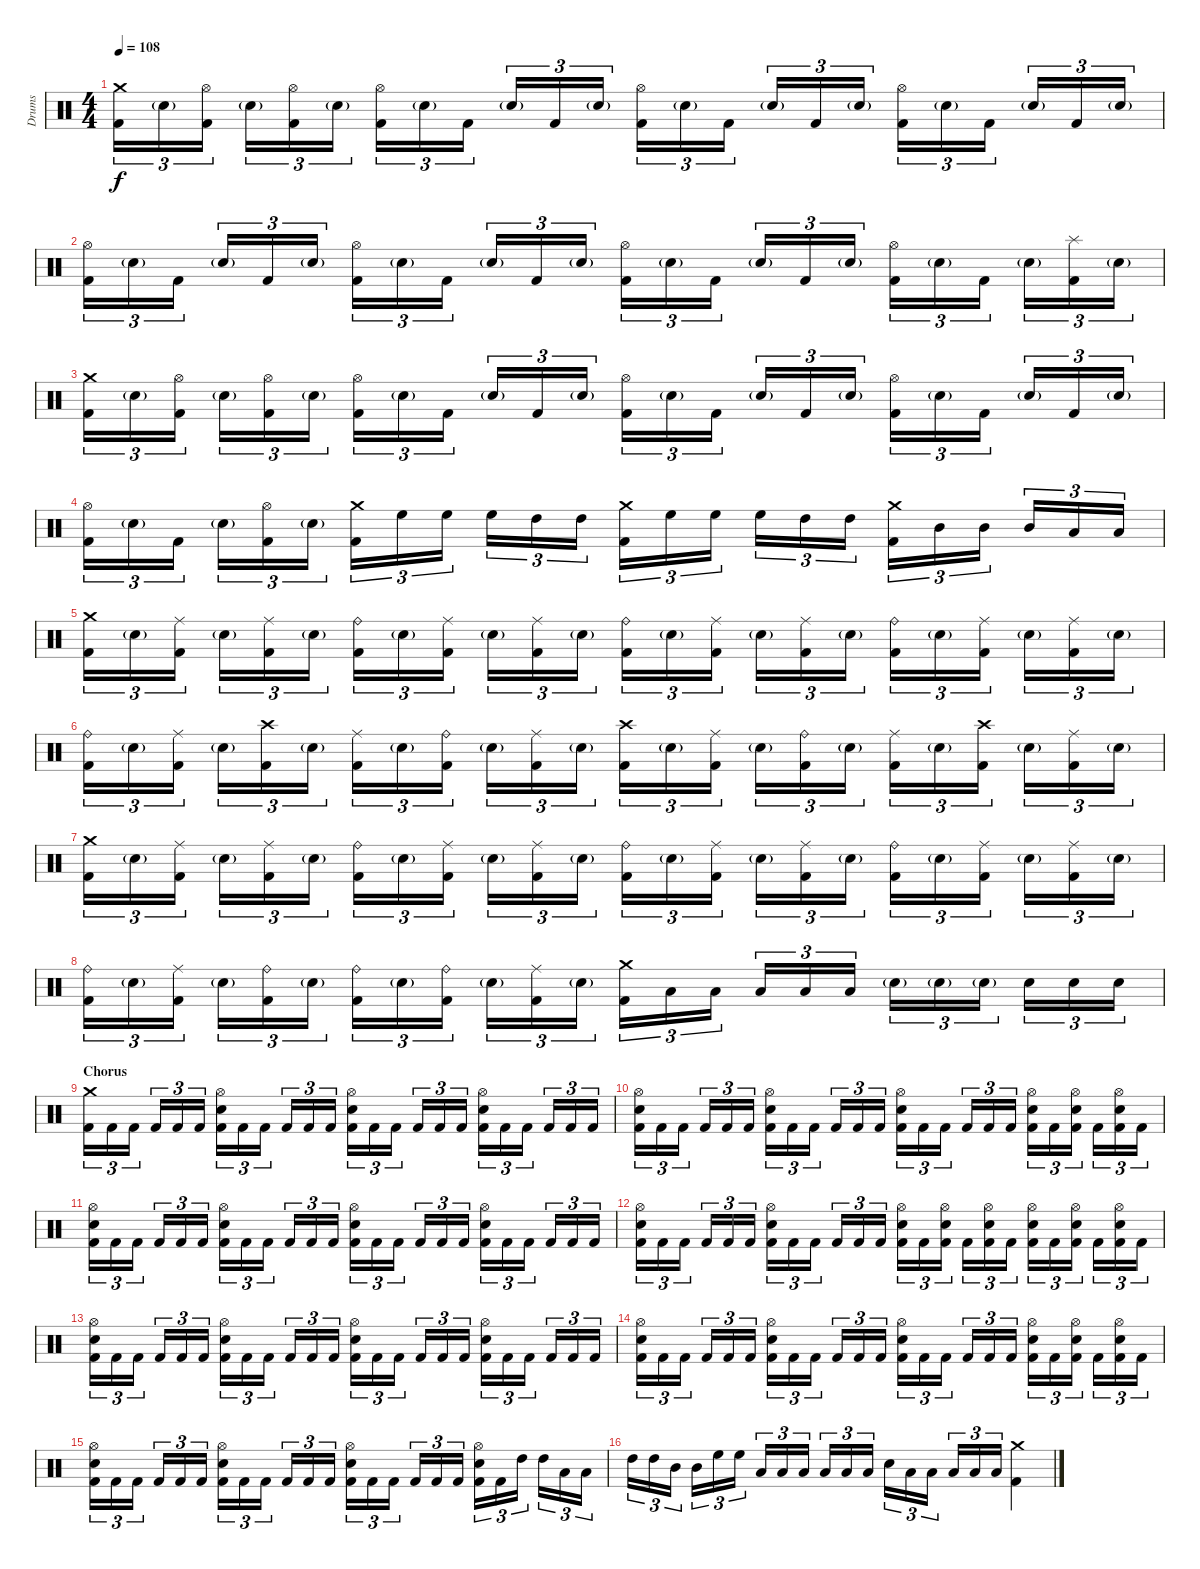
\track ("Drums" "Drums") {instrument percussion}
\staff {score}
\articulation defaults
\ts (4 4)
\tempo 108
\clef neutral
\ks c
("Crash medium (hit)" "Kick (hit) 2").16{tu (3 2) dy f} "Snare (hit) 2"{g}.16{tu (3 2)} ("Hi-Hat (open)" "Kick (hit) 2").16{tu (3 2)} "Snare (hit) 2"{g}.16{tu (3 2)} ("Hi-Hat (open)" "Kick (hit) 2").16{tu (3 2)} "Snare (hit) 2"{g}.16{tu (3 2)} ("Hi-Hat (open)" "Kick (hit) 2").16{tu (3 2)} "Snare (hit) 2"{g}.16{tu (3 2)} "Kick (hit) 2".16{tu (3 2)} "Snare (hit) 2"{g}.16{tu (3 2)} "Kick (hit) 2".16{tu (3 2)} "Snare (hit) 2"{g}.16{tu (3 2)} ("Hi-Hat (open)" "Kick (hit) 2").16{tu (3 2)} "Snare (hit) 2"{g}.16{tu (3 2)} "Kick (hit) 2".16{tu (3 2)} "Snare (hit) 2"{g}.16{tu (3 2)} "Kick (hit) 2".16{tu (3 2)} "Snare (hit) 2"{g}.16{tu (3 2)} ("Hi-Hat (open)" "Kick (hit) 2").16{tu (3 2)} "Snare (hit) 2"{g}.16{tu (3 2)} "Kick (hit) 2".16{tu (3 2)} "Snare (hit) 2"{g}.16{tu (3 2)} "Kick (hit) 2".16{tu (3 2)} "Snare (hit) 2"{g}.16{tu (3 2)} |
("Hi-Hat (open)" "Kick (hit) 2").16{tu (3 2)} "Snare (hit) 2"{g}.16{tu (3 2)} "Kick (hit) 2".16{tu (3 2)} "Snare (hit) 2"{g}.16{tu (3 2)} "Kick (hit) 2".16{tu (3 2)} "Snare (hit) 2"{g}.16{tu (3 2)} ("Hi-Hat (open)" "Kick (hit) 2").16{tu (3 2)} "Snare (hit) 2"{g}.16{tu (3 2)} "Kick (hit) 2".16{tu (3 2)} "Snare (hit) 2"{g}.16{tu (3 2)} "Kick (hit) 2".16{tu (3 2)} "Snare (hit) 2"{g}.16{tu (3 2)} ("Hi-Hat (open)" "Kick (hit) 2").16{tu (3 2)} "Snare (hit) 2"{g}.16{tu (3 2)} "Kick (hit) 2".16{tu (3 2)} "Snare (hit) 2"{g}.16{tu (3 2)} "Kick (hit) 2".16{tu (3 2)} "Snare (hit) 2"{g}.16{tu (3 2)} ("Hi-Hat (open)" "Kick (hit) 2").16{tu (3 2)} "Snare (hit) 2"{g}.16{tu (3 2)} "Kick (hit) 2".16{tu (3 2)} "Snare (hit) 2"{g}.16{tu (3 2)} ("Splash (hit)" "Kick (hit) 2").16{tu (3 2)} "Snare (hit) 2"{g}.16{tu (3 2)} |
("Crash medium (hit)" "Kick (hit) 2").16{tu (3 2)} "Snare (hit) 2"{g}.16{tu (3 2)} ("Hi-Hat (open)" "Kick (hit) 2").16{tu (3 2)} "Snare (hit) 2"{g}.16{tu (3 2)} ("Hi-Hat (open)" "Kick (hit) 2").16{tu (3 2)} "Snare (hit) 2"{g}.16{tu (3 2)} ("Hi-Hat (open)" "Kick (hit) 2").16{tu (3 2)} "Snare (hit) 2"{g}.16{tu (3 2)} "Kick (hit) 2".16{tu (3 2)} "Snare (hit) 2"{g}.16{tu (3 2)} "Kick (hit) 2".16{tu (3 2)} "Snare (hit) 2"{g}.16{tu (3 2)} ("Hi-Hat (open)" "Kick (hit) 2").16{tu (3 2)} "Snare (hit) 2"{g}.16{tu (3 2)} "Kick (hit) 2".16{tu (3 2)} "Snare (hit) 2"{g}.16{tu (3 2)} "Kick (hit) 2".16{tu (3 2)} "Snare (hit) 2"{g}.16{tu (3 2)} ("Hi-Hat (open)" "Kick (hit) 2").16{tu (3 2)} "Snare (hit) 2"{g}.16{tu (3 2)} "Kick (hit) 2".16{tu (3 2)} "Snare (hit) 2"{g}.16{tu (3 2)} "Kick (hit) 2".16{tu (3 2)} "Snare (hit) 2"{g}.16{tu (3 2)} |
("Hi-Hat (open)" "Kick (hit) 2").16{tu (3 2)} "Snare (hit) 2"{g}.16{tu (3 2)} "Kick (hit) 2".16{tu (3 2)} "Snare (hit) 2"{g}.16{tu (3 2)} ("Hi-Hat (open)" "Kick (hit) 2").16{tu (3 2)} "Snare (hit) 2"{g}.16{tu (3 2)} ("Crash medium (hit)" "Kick (hit) 2").16{tu (3 2)} "High Floor Tom (hit)".16{tu (3 2)} "High Floor Tom (hit)".16{tu (3 2)} "High Floor Tom (hit)".16{tu (3 2)} "High Tom (hit)".16{tu (3 2)} "High Tom (hit)".16{tu (3 2)} ("Crash medium (hit)" "Kick (hit) 2").16{tu (3 2)} "High Floor Tom (hit)".16{tu (3 2)} "High Floor Tom (hit)".16{tu (3 2)} "High Floor Tom (hit)".16{tu (3 2)} "High Tom (hit)".16{tu (3 2)} "High Tom (hit)".16{tu (3 2)} ("Crash medium (hit)" "Kick (hit) 2").16{tu (3 2)} "Mid Tom (hit)".16{tu (3 2)} "Mid Tom (hit)".16{tu (3 2)} "Mid Tom (hit)".16{tu (3 2)} "Low Tom (hit)".16{tu (3 2)} "Low Tom (hit)".16{tu (3 2)} |
("Crash medium (hit)" "Kick (hit) 2").16{tu (3 2)} "Snare (hit) 2"{g}.16{tu (3 2)} ("Ride (middle)" "Kick (hit) 2").16{tu (3 2)} "Snare (hit) 2"{g}.16{tu (3 2)} ("Ride (middle)" "Kick (hit) 2").16{tu (3 2)} "Snare (hit) 2"{g}.16{tu (3 2)} ("Ride (bell)" "Kick (hit) 2").16{tu (3 2)} "Snare (hit) 2"{g}.16{tu (3 2)} ("Ride (middle)" "Kick (hit) 2").16{tu (3 2)} "Snare (hit) 2"{g}.16{tu (3 2)} ("Ride (middle)" "Kick (hit) 2").16{tu (3 2)} "Snare (hit) 2"{g}.16{tu (3 2)} ("Ride (bell)" "Kick (hit) 2").16{tu (3 2)} "Snare (hit) 2"{g}.16{tu (3 2)} ("Ride (middle)" "Kick (hit) 2").16{tu (3 2)} "Snare (hit) 2"{g}.16{tu (3 2)} ("Ride (middle)" "Kick (hit) 2").16{tu (3 2)} "Snare (hit) 2"{g}.16{tu (3 2)} ("Ride (bell)" "Kick (hit) 2").16{tu (3 2)} "Snare (hit) 2"{g}.16{tu (3 2)} ("Ride (middle)" "Kick (hit) 2").16{tu (3 2)} "Snare (hit) 2"{g}.16{tu (3 2)} ("Ride (middle)" "Kick (hit) 2").16{tu (3 2)} "Snare (hit) 2"{g}.16{tu (3 2)} |
("Ride (bell)" "Kick (hit) 2").16{tu (3 2)} "Snare (hit) 2"{g}.16{tu (3 2)} ("Ride (middle)" "Kick (hit) 2").16{tu (3 2)} "Snare (hit) 2"{g}.16{tu (3 2)} ("Crash high (hit)" "Kick (hit) 2").16{tu (3 2)} "Snare (hit) 2"{g}.16{tu (3 2)} ("Ride (middle)" "Kick (hit) 2").16{tu (3 2)} "Snare (hit) 2"{g}.16{tu (3 2)} ("Ride (bell)" "Kick (hit) 2").16{tu (3 2)} "Snare (hit) 2"{g}.16{tu (3 2)} ("Ride (middle)" "Kick (hit) 2").16{tu (3 2)} "Snare (hit) 2"{g}.16{tu (3 2)} ("Crash high (hit)" "Kick (hit) 2").16{tu (3 2)} "Snare (hit) 2"{g}.16{tu (3 2)} ("Ride (middle)" "Kick (hit) 2").16{tu (3 2)} "Snare (hit) 2"{g}.16{tu (3 2)} ("Ride (bell)" "Kick (hit) 2").16{tu (3 2)} "Snare (hit) 2"{g}.16{tu (3 2)} ("Ride (middle)" "Kick (hit) 2").16{tu (3 2)} "Snare (hit) 2"{g}.16{tu (3 2)} ("Crash high (hit)" "Kick (hit) 2").16{tu (3 2)} "Snare (hit) 2"{g}.16{tu (3 2)} ("Ride (middle)" "Kick (hit) 2").16{tu (3 2)} "Snare (hit) 2"{g}.16{tu (3 2)} |
("Crash medium (hit)" "Kick (hit) 2").16{tu (3 2)} "Snare (hit) 2"{g}.16{tu (3 2)} ("Ride (middle)" "Kick (hit) 2").16{tu (3 2)} "Snare (hit) 2"{g}.16{tu (3 2)} ("Ride (middle)" "Kick (hit) 2").16{tu (3 2)} "Snare (hit) 2"{g}.16{tu (3 2)} ("Ride (bell)" "Kick (hit) 2").16{tu (3 2)} "Snare (hit) 2"{g}.16{tu (3 2)} ("Ride (middle)" "Kick (hit) 2").16{tu (3 2)} "Snare (hit) 2"{g}.16{tu (3 2)} ("Ride (middle)" "Kick (hit) 2").16{tu (3 2)} "Snare (hit) 2"{g}.16{tu (3 2)} ("Ride (bell)" "Kick (hit) 2").16{tu (3 2)} "Snare (hit) 2"{g}.16{tu (3 2)} ("Ride (middle)" "Kick (hit) 2").16{tu (3 2)} "Snare (hit) 2"{g}.16{tu (3 2)} ("Ride (middle)" "Kick (hit) 2").16{tu (3 2)} "Snare (hit) 2"{g}.16{tu (3 2)} ("Ride (bell)" "Kick (hit) 2").16{tu (3 2)} "Snare (hit) 2"{g}.16{tu (3 2)} ("Ride (middle)" "Kick (hit) 2").16{tu (3 2)} "Snare (hit) 2"{g}.16{tu (3 2)} ("Ride (middle)" "Kick (hit) 2").16{tu (3 2)} "Snare (hit) 2"{g}.16{tu (3 2)} |
("Ride (bell)" "Kick (hit) 2").16{tu (3 2)} "Snare (hit) 2"{g}.16{tu (3 2)} ("Ride (middle)" "Kick (hit) 2").16{tu (3 2)} "Snare (hit) 2"{g}.16{tu (3 2)} ("Ride (bell)" "Kick (hit) 2").16{tu (3 2)} "Snare (hit) 2"{g}.16{tu (3 2)} ("Ride (bell)" "Kick (hit) 2").16{tu (3 2)} "Snare (hit) 2"{g}.16{tu (3 2)} ("Ride (bell)" "Kick (hit) 2").16{tu (3 2)} "Snare (hit) 2"{g}.16{tu (3 2)} ("Ride (middle)" "Kick (hit) 2").16{tu (3 2)} "Snare (hit) 2"{g}.16{tu (3 2)} ("Crash medium (hit)" "Kick (hit) 2").16{tu (3 2)} "Low Tom (hit)".16{tu (3 2)} "Low Tom (hit)".16{tu (3 2)} "Low Tom (hit)".16{tu (3 2)} "Low Tom (hit)".16{tu (3 2)} "Low Tom (hit)".16{tu (3 2)} "Snare (hit) 2"{g}.16{tu (3 2)} "Snare (hit) 2"{g}.16{tu (3 2)} "Snare (hit) 2"{g}.16{tu (3 2)} "Snare (hit) 2".16{tu (3 2)} "Snare (hit) 2".16{tu (3 2)} "Snare (hit) 2".16{tu (3 2)} |
\section ("" "Chorus")
("Crash medium (hit)" "Kick (hit) 2").16{tu (3 2)} "Kick (hit) 2".16{tu (3 2)} "Kick (hit) 2".16{tu (3 2)} "Kick (hit) 2".16{tu (3 2)} "Kick (hit) 2".16{tu (3 2)} "Kick (hit) 2".16{tu (3 2)} ("Hi-Hat (open)" "Snare (hit) 2" "Kick (hit) 2").16{tu (3 2)} "Kick (hit) 2".16{tu (3 2)} "Kick (hit) 2".16{tu (3 2)} "Kick (hit) 2".16{tu (3 2)} "Kick (hit) 2".16{tu (3 2)} "Kick (hit) 2".16{tu (3 2)} ("Hi-Hat (open)" "Snare (hit) 2" "Kick (hit) 2").16{tu (3 2)} "Kick (hit) 2".16{tu (3 2)} "Kick (hit) 2".16{tu (3 2)} "Kick (hit) 2".16{tu (3 2)} "Kick (hit) 2".16{tu (3 2)} "Kick (hit) 2".16{tu (3 2)} ("Hi-Hat (open)" "Snare (hit) 2" "Kick (hit) 2").16{tu (3 2)} "Kick (hit) 2".16{tu (3 2)} "Kick (hit) 2".16{tu (3 2)} "Kick (hit) 2".16{tu (3 2)} "Kick (hit) 2".16{tu (3 2)} "Kick (hit) 2".16{tu (3 2)} |
("Hi-Hat (open)" "Snare (hit) 2" "Kick (hit) 2").16{tu (3 2)} "Kick (hit) 2".16{tu (3 2)} "Kick (hit) 2".16{tu (3 2)} "Kick (hit) 2".16{tu (3 2)} "Kick (hit) 2".16{tu (3 2)} "Kick (hit) 2".16{tu (3 2)} ("Hi-Hat (open)" "Snare (hit) 2" "Kick (hit) 2").16{tu (3 2)} "Kick (hit) 2".16{tu (3 2)} "Kick (hit) 2".16{tu (3 2)} "Kick (hit) 2".16{tu (3 2)} "Kick (hit) 2".16{tu (3 2)} "Kick (hit) 2".16{tu (3 2)} ("Hi-Hat (open)" "Snare (hit) 2" "Kick (hit) 2").16{tu (3 2)} "Kick (hit) 2".16{tu (3 2)} "Kick (hit) 2".16{tu (3 2)} "Kick (hit) 2".16{tu (3 2)} "Kick (hit) 2".16{tu (3 2)} "Kick (hit) 2".16{tu (3 2)} ("Hi-Hat (open)" "Snare (hit) 2" "Kick (hit) 2").16{tu (3 2)} "Kick (hit) 2".16{tu (3 2)} ("Hi-Hat (open)" "Snare (hit) 2" "Kick (hit) 2").16{tu (3 2)} "Kick (hit) 2".16{tu (3 2)} ("Hi-Hat (open)" "Snare (hit) 2" "Kick (hit) 2").16{tu (3 2)} "Kick (hit) 2".16{tu (3 2)} |
("Hi-Hat (open)" "Snare (hit) 2" "Kick (hit) 2").16{tu (3 2)} "Kick (hit) 2".16{tu (3 2)} "Kick (hit) 2".16{tu (3 2)} "Kick (hit) 2".16{tu (3 2)} "Kick (hit) 2".16{tu (3 2)} "Kick (hit) 2".16{tu (3 2)} ("Hi-Hat (open)" "Snare (hit) 2" "Kick (hit) 2").16{tu (3 2)} "Kick (hit) 2".16{tu (3 2)} "Kick (hit) 2".16{tu (3 2)} "Kick (hit) 2".16{tu (3 2)} "Kick (hit) 2".16{tu (3 2)} "Kick (hit) 2".16{tu (3 2)} ("Hi-Hat (open)" "Snare (hit) 2" "Kick (hit) 2").16{tu (3 2)} "Kick (hit) 2".16{tu (3 2)} "Kick (hit) 2".16{tu (3 2)} "Kick (hit) 2".16{tu (3 2)} "Kick (hit) 2".16{tu (3 2)} "Kick (hit) 2".16{tu (3 2)} ("Hi-Hat (open)" "Snare (hit) 2" "Kick (hit) 2").16{tu (3 2)} "Kick (hit) 2".16{tu (3 2)} "Kick (hit) 2".16{tu (3 2)} "Kick (hit) 2".16{tu (3 2)} "Kick (hit) 2".16{tu (3 2)} "Kick (hit) 2".16{tu (3 2)} |
("Hi-Hat (open)" "Snare (hit) 2" "Kick (hit) 2").16{tu (3 2)} "Kick (hit) 2".16{tu (3 2)} "Kick (hit) 2".16{tu (3 2)} "Kick (hit) 2".16{tu (3 2)} "Kick (hit) 2".16{tu (3 2)} "Kick (hit) 2".16{tu (3 2)} ("Hi-Hat (open)" "Snare (hit) 2" "Kick (hit) 2").16{tu (3 2)} "Kick (hit) 2".16{tu (3 2)} "Kick (hit) 2".16{tu (3 2)} "Kick (hit) 2".16{tu (3 2)} "Kick (hit) 2".16{tu (3 2)} "Kick (hit) 2".16{tu (3 2)} ("Hi-Hat (open)" "Snare (hit) 2" "Kick (hit) 2").16{tu (3 2)} "Kick (hit) 2".16{tu (3 2)} ("Hi-Hat (open)" "Snare (hit) 2" "Kick (hit) 2").16{tu (3 2)} "Kick (hit) 2".16{tu (3 2)} ("Hi-Hat (open)" "Snare (hit) 2" "Kick (hit) 2").16{tu (3 2)} "Kick (hit) 2".16{tu (3 2)} ("Hi-Hat (open)" "Snare (hit) 2" "Kick (hit) 2").16{tu (3 2)} "Kick (hit) 2".16{tu (3 2)} ("Hi-Hat (open)" "Snare (hit) 2" "Kick (hit) 2").16{tu (3 2)} "Kick (hit) 2".16{tu (3 2)} ("Hi-Hat (open)" "Snare (hit) 2" "Kick (hit) 2").16{tu (3 2)} "Kick (hit) 2".16{tu (3 2)} |
("Hi-Hat (open)" "Snare (hit) 2" "Kick (hit) 2").16{tu (3 2)} "Kick (hit) 2".16{tu (3 2)} "Kick (hit) 2".16{tu (3 2)} "Kick (hit) 2".16{tu (3 2)} "Kick (hit) 2".16{tu (3 2)} "Kick (hit) 2".16{tu (3 2)} ("Hi-Hat (open)" "Snare (hit) 2" "Kick (hit) 2").16{tu (3 2)} "Kick (hit) 2".16{tu (3 2)} "Kick (hit) 2".16{tu (3 2)} "Kick (hit) 2".16{tu (3 2)} "Kick (hit) 2".16{tu (3 2)} "Kick (hit) 2".16{tu (3 2)} ("Hi-Hat (open)" "Snare (hit) 2" "Kick (hit) 2").16{tu (3 2)} "Kick (hit) 2".16{tu (3 2)} "Kick (hit) 2".16{tu (3 2)} "Kick (hit) 2".16{tu (3 2)} "Kick (hit) 2".16{tu (3 2)} "Kick (hit) 2".16{tu (3 2)} ("Hi-Hat (open)" "Snare (hit) 2" "Kick (hit) 2").16{tu (3 2)} "Kick (hit) 2".16{tu (3 2)} "Kick (hit) 2".16{tu (3 2)} "Kick (hit) 2".16{tu (3 2)} "Kick (hit) 2".16{tu (3 2)} "Kick (hit) 2".16{tu (3 2)} |
("Hi-Hat (open)" "Snare (hit) 2" "Kick (hit) 2").16{tu (3 2)} "Kick (hit) 2".16{tu (3 2)} "Kick (hit) 2".16{tu (3 2)} "Kick (hit) 2".16{tu (3 2)} "Kick (hit) 2".16{tu (3 2)} "Kick (hit) 2".16{tu (3 2)} ("Hi-Hat (open)" "Snare (hit) 2" "Kick (hit) 2").16{tu (3 2)} "Kick (hit) 2".16{tu (3 2)} "Kick (hit) 2".16{tu (3 2)} "Kick (hit) 2".16{tu (3 2)} "Kick (hit) 2".16{tu (3 2)} "Kick (hit) 2".16{tu (3 2)} ("Hi-Hat (open)" "Snare (hit) 2" "Kick (hit) 2").16{tu (3 2)} "Kick (hit) 2".16{tu (3 2)} "Kick (hit) 2".16{tu (3 2)} "Kick (hit) 2".16{tu (3 2)} "Kick (hit) 2".16{tu (3 2)} "Kick (hit) 2".16{tu (3 2)} ("Hi-Hat (open)" "Snare (hit) 2" "Kick (hit) 2").16{tu (3 2)} "Kick (hit) 2".16{tu (3 2)} ("Hi-Hat (open)" "Snare (hit) 2" "Kick (hit) 2").16{tu (3 2)} "Kick (hit) 2".16{tu (3 2)} ("Hi-Hat (open)" "Snare (hit) 2" "Kick (hit) 2").16{tu (3 2)} "Kick (hit) 2".16{tu (3 2)} |
("Hi-Hat (open)" "Snare (hit) 2" "Kick (hit) 2").16{tu (3 2)} "Kick (hit) 2".16{tu (3 2)} "Kick (hit) 2".16{tu (3 2)} "Kick (hit) 2".16{tu (3 2)} "Kick (hit) 2".16{tu (3 2)} "Kick (hit) 2".16{tu (3 2)} ("Hi-Hat (open)" "Snare (hit) 2" "Kick (hit) 2").16{tu (3 2)} "Kick (hit) 2".16{tu (3 2)} "Kick (hit) 2".16{tu (3 2)} "Kick (hit) 2".16{tu (3 2)} "Kick (hit) 2".16{tu (3 2)} "Kick (hit) 2".16{tu (3 2)} ("Hi-Hat (open)" "Snare (hit) 2" "Kick (hit) 2").16{tu (3 2)} "Kick (hit) 2".16{tu (3 2)} "Kick (hit) 2".16{tu (3 2)} "Kick (hit) 2".16{tu (3 2)} "Kick (hit) 2".16{tu (3 2)} "Kick (hit) 2".16{tu (3 2)} ("Hi-Hat (open)" "Snare (hit) 2" "Kick (hit) 2").16{tu (3 2)} "Kick (hit) 2".16{tu (3 2)} "High Tom (hit)".16{tu (3 2)} "High Tom (hit)".16{tu (3 2)} "Low Tom (hit)".16{tu (3 2)} "Low Tom (hit)".16{tu (3 2)} |
"High Tom (hit)".16{tu (3 2)} "High Tom (hit)".16{tu (3 2)} "Mid Tom (hit)".16{tu (3 2)} "Mid Tom (hit)".16{tu (3 2)} "High Floor Tom (hit)".16{tu (3 2)} "High Floor Tom (hit)".16{tu (3 2)} "Low Tom (hit)".16{tu (3 2)} "Low Tom (hit)".16{tu (3 2)} "Low Tom (hit)".16{tu (3 2)} "Low Tom (hit)".16{tu (3 2)} "Low Tom (hit)".16{tu (3 2)} "Low Tom (hit)".16{tu (3 2)} "Snare (hit) 2".16{tu (3 2)} "Low Tom (hit)".16{tu (3 2)} "Low Tom (hit)".16{tu (3 2)} "Low Tom (hit)".16{tu (3 2)} "Low Tom (hit)".16{tu (3 2)} "Low Tom (hit)".16{tu (3 2)} ("Crash medium (hit)" "Kick (hit) 2").4
